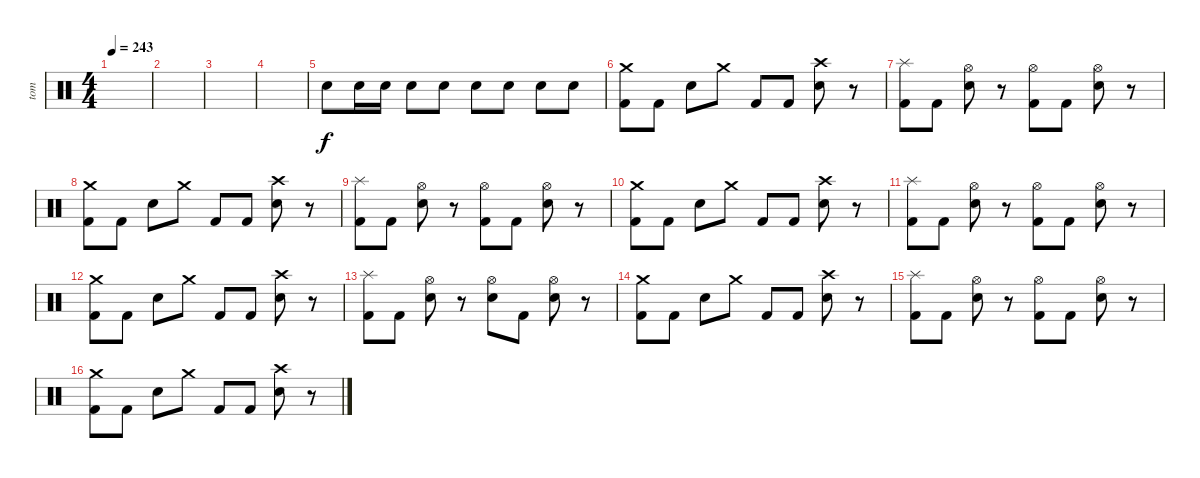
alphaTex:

\track ("tom" "tom") {instrument percussion}
\staff {score}
\articulation defaults
\ts (4 4)
\tempo 243
\clef neutral
\ks c
|
|
|
|
"Electric Snare (hit)".8 "Electric Snare (hit)".16 "Electric Snare (hit)".16 "Electric Snare (hit)".8 "Electric Snare (hit)".8 "Electric Snare (hit)".8 "Electric Snare (hit)".8 "Electric Snare (hit)".8 "Electric Snare (hit)".8 |
("Crash medium (hit)" "Kick (hit) 2").8 "Kick (hit) 2".8 "Electric Snare (hit)".8 "Crash medium (hit)".8 "Kick (hit) 2".8 "Kick (hit) 2".8 ("Crash high (hit)" "Electric Snare (hit)").8 r.8 |
("Splash (hit)" "Kick (hit) 2").8 "Kick (hit) 2".8 ("Hi-Hat (open)" "Electric Snare (hit)").8 r.8 ("Hi-Hat (open)" "Kick (hit) 2").8 "Kick (hit) 2".8 ("Hi-Hat (open)" "Electric Snare (hit)").8 r.8 |
("Crash medium (hit)" "Kick (hit) 2").8 "Kick (hit) 2".8 "Electric Snare (hit)".8 "Crash medium (hit)".8 "Kick (hit) 2".8 "Kick (hit) 2".8 ("Crash high (hit)" "Electric Snare (hit)").8 r.8 |
("Splash (hit)" "Kick (hit) 2").8 "Kick (hit) 2".8 ("Hi-Hat (open)" "Electric Snare (hit)").8 r.8 ("Hi-Hat (open)" "Kick (hit) 2").8 "Kick (hit) 2".8 ("Hi-Hat (open)" "Electric Snare (hit)").8 r.8 |
("Crash medium (hit)" "Kick (hit) 2").8 "Kick (hit) 2".8 "Electric Snare (hit)".8 "Crash medium (hit)".8 "Kick (hit) 2".8 "Kick (hit) 2".8 ("Crash high (hit)" "Electric Snare (hit)").8 r.8 |
("Splash (hit)" "Kick (hit) 2").8 "Kick (hit) 2".8 ("Hi-Hat (open)" "Electric Snare (hit)").8 r.8 ("Hi-Hat (open)" "Kick (hit) 2").8 "Kick (hit) 2".8 ("Hi-Hat (open)" "Electric Snare (hit)").8 r.8 |
("Crash medium (hit)" "Kick (hit) 2").8 "Kick (hit) 2".8 "Electric Snare (hit)".8 "Crash medium (hit)".8 "Kick (hit) 2".8 "Kick (hit) 2".8 ("Crash high (hit)" "Electric Snare (hit)").8 r.8 |
("Splash (hit)" "Kick (hit) 2").8 "Kick (hit) 2".8 ("Hi-Hat (open)" "Electric Snare (hit)").8 r.8 ("Hi-Hat (open)" "Electric Snare (hit)").8 "Kick (hit) 2".8 ("Hi-Hat (open)" "Electric Snare (hit)").8 r.8 |
("Crash medium (hit)" "Kick (hit) 2").8 "Kick (hit) 2".8 "Electric Snare (hit)".8 "Crash medium (hit)".8 "Kick (hit) 2".8 "Kick (hit) 2".8 ("Crash high (hit)" "Electric Snare (hit)").8 r.8 |
("Splash (hit)" "Kick (hit) 2").8 "Kick (hit) 2".8 ("Hi-Hat (open)" "Electric Snare (hit)").8 r.8 ("Hi-Hat (open)" "Kick (hit) 2").8 "Kick (hit) 2".8 ("Hi-Hat (open)" "Electric Snare (hit)").8 r.8 |
("Crash medium (hit)" "Kick (hit) 2").8 "Kick (hit) 2".8 "Electric Snare (hit)".8 "Crash medium (hit)".8 "Kick (hit) 2".8 "Kick (hit) 2".8 ("Crash high (hit)" "Electric Snare (hit)").8 r.8
